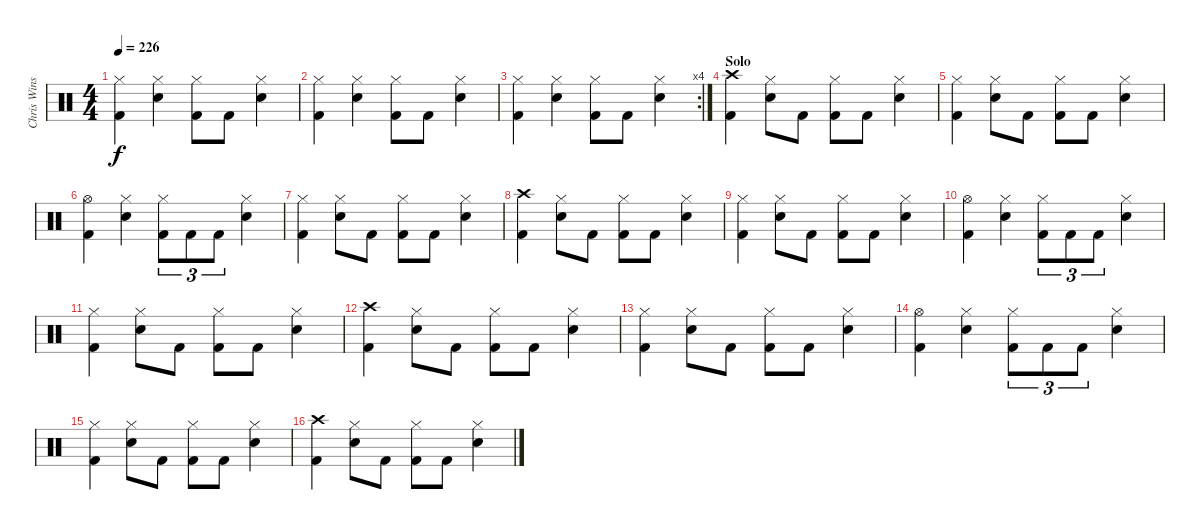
\track ("Chris Winship (Drums)" "Chris Wins") {instrument percussion}
\staff {score}
\articulation defaults
\ts (4 4)
\tempo 226
\clef neutral
\ks c
("Hi-Hat (closed)" "Kick (hit) 2").4{dy f} ("Hi-Hat (closed)" "Electric Snare (hit)").4 ("Hi-Hat (closed)" "Kick (hit) 2").8 "Kick (hit) 2".8 ("Hi-Hat (closed)" "Electric Snare (hit)").4 |
("Hi-Hat (closed)" "Kick (hit) 2").4 ("Hi-Hat (closed)" "Electric Snare (hit)").4 ("Hi-Hat (closed)" "Kick (hit) 2").8 "Kick (hit) 2".8 ("Hi-Hat (closed)" "Electric Snare (hit)").4 |
\rc 4
("Hi-Hat (closed)" "Kick (hit) 2").4 ("Hi-Hat (closed)" "Electric Snare (hit)").4 ("Hi-Hat (closed)" "Kick (hit) 2").8 "Kick (hit) 2".8 ("Hi-Hat (closed)" "Electric Snare (hit)").4 |
\section ("" "Solo")
("Crash high (hit)" "Kick (hit) 2").4 ("Hi-Hat (closed)" "Electric Snare (hit)").8 "Kick (hit) 2".8 ("Hi-Hat (closed)" "Kick (hit) 2").8 "Kick (hit) 2".8 ("Hi-Hat (closed)" "Electric Snare (hit)").4 |
("Hi-Hat (closed)" "Kick (hit) 2").4 ("Hi-Hat (closed)" "Electric Snare (hit)").8 "Kick (hit) 2".8 ("Hi-Hat (closed)" "Kick (hit) 2").8 "Kick (hit) 2".8 ("Hi-Hat (closed)" "Electric Snare (hit)").4 |
("Hi-Hat (open)" "Kick (hit) 2").4 ("Hi-Hat (closed)" "Electric Snare (hit)").4 ("Hi-Hat (closed)" "Kick (hit) 2").8{tu (3 2)} "Kick (hit) 2".8{tu (3 2)} "Kick (hit) 2".8{tu (3 2)} ("Hi-Hat (closed)" "Electric Snare (hit)").4 |
("Hi-Hat (closed)" "Kick (hit) 2").4 ("Hi-Hat (closed)" "Electric Snare (hit)").8 "Kick (hit) 2".8 ("Hi-Hat (closed)" "Kick (hit) 2").8 "Kick (hit) 2".8 ("Hi-Hat (closed)" "Electric Snare (hit)").4 |
("Crash high (hit)" "Kick (hit) 2").4 ("Hi-Hat (closed)" "Electric Snare (hit)").8 "Kick (hit) 2".8 ("Hi-Hat (closed)" "Kick (hit) 2").8 "Kick (hit) 2".8 ("Hi-Hat (closed)" "Electric Snare (hit)").4 |
("Hi-Hat (closed)" "Kick (hit) 2").4 ("Hi-Hat (closed)" "Electric Snare (hit)").8 "Kick (hit) 2".8 ("Hi-Hat (closed)" "Kick (hit) 2").8 "Kick (hit) 2".8 ("Hi-Hat (closed)" "Electric Snare (hit)").4 |
("Hi-Hat (open)" "Kick (hit) 2").4 ("Hi-Hat (closed)" "Electric Snare (hit)").4 ("Hi-Hat (closed)" "Kick (hit) 2").8{tu (3 2)} "Kick (hit) 2".8{tu (3 2)} "Kick (hit) 2".8{tu (3 2)} ("Hi-Hat (closed)" "Electric Snare (hit)").4 |
("Hi-Hat (closed)" "Kick (hit) 2").4 ("Hi-Hat (closed)" "Electric Snare (hit)").8 "Kick (hit) 2".8 ("Hi-Hat (closed)" "Kick (hit) 2").8 "Kick (hit) 2".8 ("Hi-Hat (closed)" "Electric Snare (hit)").4 |
("Crash high (hit)" "Kick (hit) 2").4 ("Hi-Hat (closed)" "Electric Snare (hit)").8 "Kick (hit) 2".8 ("Hi-Hat (closed)" "Kick (hit) 2").8 "Kick (hit) 2".8 ("Hi-Hat (closed)" "Electric Snare (hit)").4 |
("Hi-Hat (closed)" "Kick (hit) 2").4 ("Hi-Hat (closed)" "Electric Snare (hit)").8 "Kick (hit) 2".8 ("Hi-Hat (closed)" "Kick (hit) 2").8 "Kick (hit) 2".8 ("Hi-Hat (closed)" "Electric Snare (hit)").4 |
("Hi-Hat (open)" "Kick (hit) 2").4 ("Hi-Hat (closed)" "Electric Snare (hit)").4 ("Hi-Hat (closed)" "Kick (hit) 2").8{tu (3 2)} "Kick (hit) 2".8{tu (3 2)} "Kick (hit) 2".8{tu (3 2)} ("Hi-Hat (closed)" "Electric Snare (hit)").4 |
("Hi-Hat (closed)" "Kick (hit) 2").4 ("Hi-Hat (closed)" "Electric Snare (hit)").8 "Kick (hit) 2".8 ("Hi-Hat (closed)" "Kick (hit) 2").8 "Kick (hit) 2".8 ("Hi-Hat (closed)" "Electric Snare (hit)").4 |
("Crash high (hit)" "Kick (hit) 2").4 ("Hi-Hat (closed)" "Electric Snare (hit)").8 "Kick (hit) 2".8 ("Hi-Hat (closed)" "Kick (hit) 2").8 "Kick (hit) 2".8 ("Hi-Hat (closed)" "Electric Snare (hit)").4
